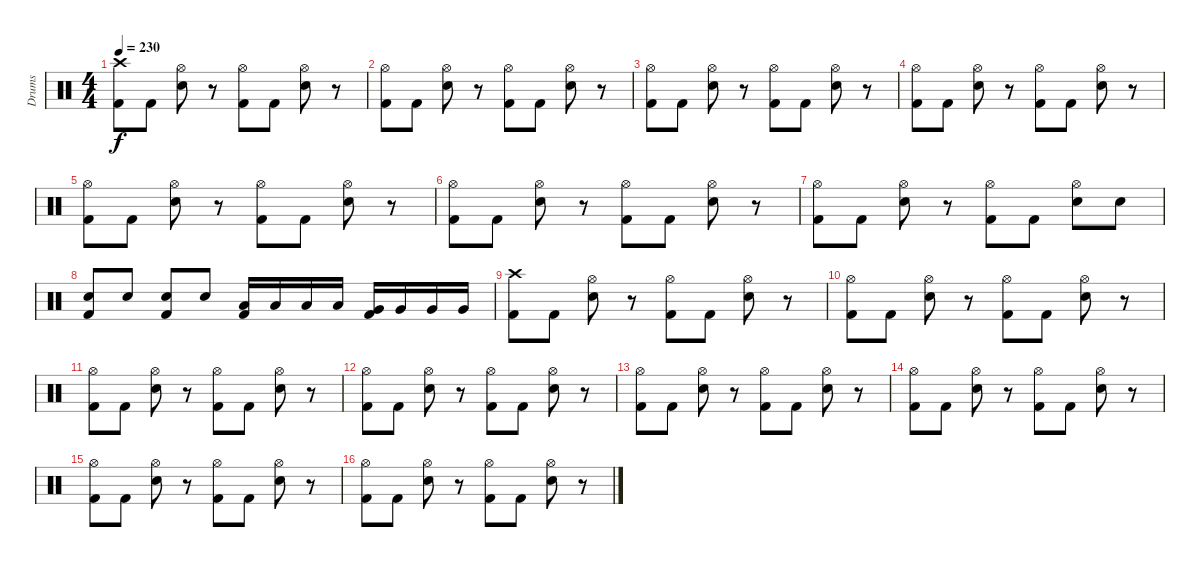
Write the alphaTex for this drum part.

\track ("Drums" "Drums") {instrument percussion}
\staff {score}
\articulation defaults
\ts (4 4)
\tempo 230
\clef neutral
\ks c
("Crash high (hit)" "Kick (hit) 2").8{dy f} "Kick (hit) 2".8 ("Hi-Hat (open)" "Electric Snare (hit)").8 r.8 ("Hi-Hat (open)" "Kick (hit) 2").8 "Kick (hit) 2".8 ("Hi-Hat (open)" "Electric Snare (hit)").8 r.8 |
("Hi-Hat (open)" "Kick (hit) 2").8 "Kick (hit) 2".8 ("Hi-Hat (open)" "Electric Snare (hit)").8 r.8 ("Hi-Hat (open)" "Kick (hit) 2").8 "Kick (hit) 2".8 ("Hi-Hat (open)" "Electric Snare (hit)").8 r.8 |
("Hi-Hat (open)" "Kick (hit) 2").8 "Kick (hit) 2".8 ("Hi-Hat (open)" "Electric Snare (hit)").8 r.8 ("Hi-Hat (open)" "Kick (hit) 2").8 "Kick (hit) 2".8 ("Hi-Hat (open)" "Electric Snare (hit)").8 r.8 |
("Hi-Hat (open)" "Kick (hit) 2").8 "Kick (hit) 2".8 ("Hi-Hat (open)" "Electric Snare (hit)").8 r.8 ("Hi-Hat (open)" "Kick (hit) 2").8 "Kick (hit) 2".8 ("Hi-Hat (open)" "Electric Snare (hit)").8 r.8 |
("Hi-Hat (open)" "Kick (hit) 2").8 "Kick (hit) 2".8 ("Hi-Hat (open)" "Electric Snare (hit)").8 r.8 ("Hi-Hat (open)" "Kick (hit) 2").8 "Kick (hit) 2".8 ("Hi-Hat (open)" "Electric Snare (hit)").8 r.8 |
("Hi-Hat (open)" "Kick (hit) 2").8 "Kick (hit) 2".8 ("Hi-Hat (open)" "Electric Snare (hit)").8 r.8 ("Hi-Hat (open)" "Kick (hit) 2").8 "Kick (hit) 2".8 ("Hi-Hat (open)" "Electric Snare (hit)").8 r.8 |
("Hi-Hat (open)" "Kick (hit) 2").8 "Kick (hit) 2".8 ("Hi-Hat (open)" "Electric Snare (hit)").8 r.8 ("Hi-Hat (open)" "Kick (hit) 2").8 "Kick (hit) 2".8 ("Hi-Hat (open)" "Electric Snare (hit)").8 "Electric Snare (hit)".8 |
("Electric Snare (hit)" "Kick (hit) 2").8 "Electric Snare (hit)".8 ("Electric Snare (hit)" "Kick (hit) 2").8 "Electric Snare (hit)".8 ("Low Tom (hit)" "Kick (hit) 2").16 "Low Tom (hit)".16 "Low Tom (hit)".16 "Low Tom (hit)".16 ("Very Low Tom (hit)" "Kick (hit) 2").16 "Very Low Tom (hit)".16 "Very Low Tom (hit)".16 "Very Low Tom (hit)".16 |
("Crash high (hit)" "Kick (hit) 2").8 "Kick (hit) 2".8 ("Hi-Hat (open)" "Electric Snare (hit)").8 r.8 ("Hi-Hat (open)" "Kick (hit) 2").8 "Kick (hit) 2".8 ("Hi-Hat (open)" "Electric Snare (hit)").8 r.8 |
("Hi-Hat (open)" "Kick (hit) 2").8 "Kick (hit) 2".8 ("Hi-Hat (open)" "Electric Snare (hit)").8 r.8 ("Hi-Hat (open)" "Kick (hit) 2").8 "Kick (hit) 2".8 ("Hi-Hat (open)" "Electric Snare (hit)").8 r.8 |
("Hi-Hat (open)" "Kick (hit) 2").8 "Kick (hit) 2".8 ("Hi-Hat (open)" "Electric Snare (hit)").8 r.8 ("Hi-Hat (open)" "Kick (hit) 2").8 "Kick (hit) 2".8 ("Hi-Hat (open)" "Electric Snare (hit)").8 r.8 |
("Hi-Hat (open)" "Kick (hit) 2").8 "Kick (hit) 2".8 ("Hi-Hat (open)" "Electric Snare (hit)").8 r.8 ("Hi-Hat (open)" "Kick (hit) 2").8 "Kick (hit) 2".8 ("Hi-Hat (open)" "Electric Snare (hit)").8 r.8 |
("Hi-Hat (open)" "Kick (hit) 2").8 "Kick (hit) 2".8 ("Hi-Hat (open)" "Electric Snare (hit)").8 r.8 ("Hi-Hat (open)" "Kick (hit) 2").8 "Kick (hit) 2".8 ("Hi-Hat (open)" "Electric Snare (hit)").8 r.8 |
("Hi-Hat (open)" "Kick (hit) 2").8 "Kick (hit) 2".8 ("Hi-Hat (open)" "Electric Snare (hit)").8 r.8 ("Hi-Hat (open)" "Kick (hit) 2").8 "Kick (hit) 2".8 ("Hi-Hat (open)" "Electric Snare (hit)").8 r.8 |
("Hi-Hat (open)" "Kick (hit) 2").8 "Kick (hit) 2".8 ("Hi-Hat (open)" "Electric Snare (hit)").8 r.8 ("Hi-Hat (open)" "Kick (hit) 2").8 "Kick (hit) 2".8 ("Hi-Hat (open)" "Electric Snare (hit)").8 r.8 |
("Hi-Hat (open)" "Kick (hit) 2").8 "Kick (hit) 2".8 ("Hi-Hat (open)" "Electric Snare (hit)").8 r.8 ("Hi-Hat (open)" "Kick (hit) 2").8 "Kick (hit) 2".8 ("Hi-Hat (open)" "Electric Snare (hit)").8 r.8
